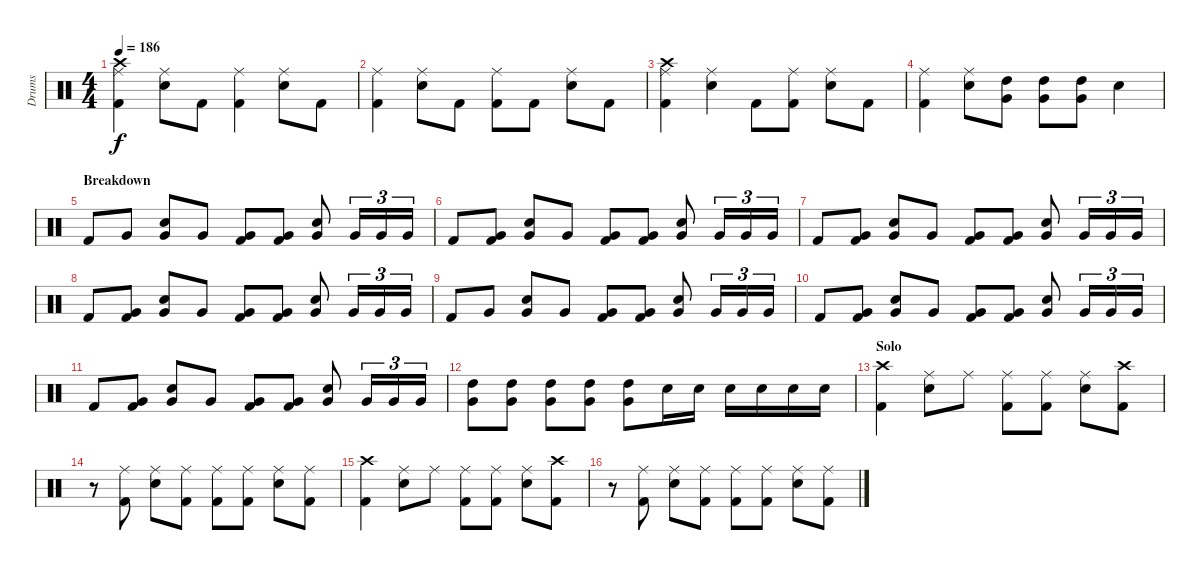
\track ("Drums" "Drums") {instrument percussion}
\staff {score}
\articulation defaults
\ts (4 4)
\tempo 186
\clef neutral
\ks c
("Crash high (hit)" "Ride (middle)" "Kick (hit) 2").4{dy f} ("Ride (middle)" "Snare (hit) 2").8 "Kick (hit) 2".8 ("Ride (middle)" "Kick (hit) 2").4 ("Ride (middle)" "Snare (hit) 2").8 "Kick (hit) 2".8 |
("Ride (middle)" "Kick (hit) 2").4 ("Ride (middle)" "Snare (hit) 2").8 "Kick (hit) 2".8 ("Ride (middle)" "Kick (hit) 2").8 "Kick (hit) 2".8 ("Ride (middle)" "Snare (hit) 2").8 "Kick (hit) 2".8 |
("Crash high (hit)" "Ride (middle)" "Kick (hit) 2").4 ("Ride (middle)" "Snare (hit) 2").4 "Kick (hit) 2".8 ("Ride (middle)" "Kick (hit) 2").8 ("Ride (middle)" "Snare (hit) 2").8 "Kick (hit) 2".8 |
("Ride (middle)" "Kick (hit) 2").4 ("Ride (middle)" "Snare (hit) 2").8 ("High Tom (hit)" "Very Low Tom (hit)").8 ("High Tom (hit)" "Very Low Tom (hit)").8 ("High Tom (hit)" "Very Low Tom (hit)").8 "Snare (hit) 2".4 |
\section ("" "Breakdown")
"Kick (hit) 2".8 "Very Low Tom (hit)".8 ("Snare (hit) 2" "Very Low Tom (hit)").8 "Very Low Tom (hit)".8 ("Very Low Tom (hit)" "Kick (hit) 2").8 ("Very Low Tom (hit)" "Kick (hit) 2").8 ("Snare (hit) 2" "Very Low Tom (hit)").8 "Very Low Tom (hit)".16{tu (3 2)} "Very Low Tom (hit)".16{tu (3 2)} "Very Low Tom (hit)".16{tu (3 2)} |
"Kick (hit) 2".8 ("Very Low Tom (hit)" "Kick (hit) 2").8 ("Snare (hit) 2" "Very Low Tom (hit)").8 "Very Low Tom (hit)".8 ("Very Low Tom (hit)" "Kick (hit) 2").8 ("Very Low Tom (hit)" "Kick (hit) 2").8 ("Snare (hit) 2" "Very Low Tom (hit)").8 "Very Low Tom (hit)".16{tu (3 2)} "Very Low Tom (hit)".16{tu (3 2)} "Very Low Tom (hit)".16{tu (3 2)} |
"Kick (hit) 2".8 ("Very Low Tom (hit)" "Kick (hit) 2").8 ("Snare (hit) 2" "Very Low Tom (hit)").8 "Very Low Tom (hit)".8 ("Very Low Tom (hit)" "Kick (hit) 2").8 ("Very Low Tom (hit)" "Kick (hit) 2").8 ("Snare (hit) 2" "Very Low Tom (hit)").8 "Very Low Tom (hit)".16{tu (3 2)} "Very Low Tom (hit)".16{tu (3 2)} "Very Low Tom (hit)".16{tu (3 2)} |
"Kick (hit) 2".8 ("Very Low Tom (hit)" "Kick (hit) 2").8 ("Snare (hit) 2" "Very Low Tom (hit)").8 "Very Low Tom (hit)".8 ("Very Low Tom (hit)" "Kick (hit) 2").8 ("Very Low Tom (hit)" "Kick (hit) 2").8 ("Snare (hit) 2" "Very Low Tom (hit)").8 "Very Low Tom (hit)".16{tu (3 2)} "Very Low Tom (hit)".16{tu (3 2)} "Very Low Tom (hit)".16{tu (3 2)} |
"Kick (hit) 2".8 "Very Low Tom (hit)".8 ("Snare (hit) 2" "Very Low Tom (hit)").8 "Very Low Tom (hit)".8 ("Very Low Tom (hit)" "Kick (hit) 2").8 ("Very Low Tom (hit)" "Kick (hit) 2").8 ("Snare (hit) 2" "Very Low Tom (hit)").8 "Very Low Tom (hit)".16{tu (3 2)} "Very Low Tom (hit)".16{tu (3 2)} "Very Low Tom (hit)".16{tu (3 2)} |
"Kick (hit) 2".8 ("Very Low Tom (hit)" "Kick (hit) 2").8 ("Snare (hit) 2" "Very Low Tom (hit)").8 "Very Low Tom (hit)".8 ("Very Low Tom (hit)" "Kick (hit) 2").8 ("Very Low Tom (hit)" "Kick (hit) 2").8 ("Snare (hit) 2" "Very Low Tom (hit)").8 "Very Low Tom (hit)".16{tu (3 2)} "Very Low Tom (hit)".16{tu (3 2)} "Very Low Tom (hit)".16{tu (3 2)} |
"Kick (hit) 2".8 ("Very Low Tom (hit)" "Kick (hit) 2").8 ("Snare (hit) 2" "Very Low Tom (hit)").8 "Very Low Tom (hit)".8 ("Very Low Tom (hit)" "Kick (hit) 2").8 ("Very Low Tom (hit)" "Kick (hit) 2").8 ("Snare (hit) 2" "Very Low Tom (hit)").8 "Very Low Tom (hit)".16{tu (3 2)} "Very Low Tom (hit)".16{tu (3 2)} "Very Low Tom (hit)".16{tu (3 2)} |
("High Tom (hit)" "Very Low Tom (hit)").8 ("High Tom (hit)" "Very Low Tom (hit)").8 ("High Tom (hit)" "Very Low Tom (hit)").8 ("High Tom (hit)" "Very Low Tom (hit)").8 ("High Tom (hit)" "Very Low Tom (hit)").8 "Snare (hit) 2".16 "Snare (hit) 2".16 "Snare (hit) 2".16 "Snare (hit) 2".16 "Snare (hit) 2".16 "Snare (hit) 2".16 |
\section ("" "Solo")
("Crash high (hit)" "Kick (hit) 2").4 ("Ride (middle)" "Snare (hit) 2").8 "Ride (middle)".8 ("Ride (middle)" "Kick (hit) 2").8 ("Ride (middle)" "Kick (hit) 2").8 ("Ride (middle)" "Snare (hit) 2").8 ("Crash high (hit)" "Kick (hit) 2").8 |
r.8 ("Ride (middle)" "Kick (hit) 2").8 ("Ride (middle)" "Snare (hit) 2").8 ("Ride (middle)" "Kick (hit) 2").8 ("Ride (middle)" "Kick (hit) 2").8 ("Ride (middle)" "Kick (hit) 2").8 ("Ride (middle)" "Snare (hit) 2").8 ("Ride (middle)" "Kick (hit) 2").8 |
("Crash high (hit)" "Kick (hit) 2").4 ("Ride (middle)" "Snare (hit) 2").8 "Ride (middle)".8 ("Ride (middle)" "Kick (hit) 2").8 ("Ride (middle)" "Kick (hit) 2").8 ("Ride (middle)" "Snare (hit) 2").8 ("Crash high (hit)" "Kick (hit) 2").8 |
r.8 ("Ride (middle)" "Kick (hit) 2").8 ("Ride (middle)" "Snare (hit) 2").8 ("Ride (middle)" "Kick (hit) 2").8 ("Ride (middle)" "Kick (hit) 2").8 ("Ride (middle)" "Kick (hit) 2").8 ("Ride (middle)" "Snare (hit) 2").8 ("Ride (middle)" "Kick (hit) 2").8
